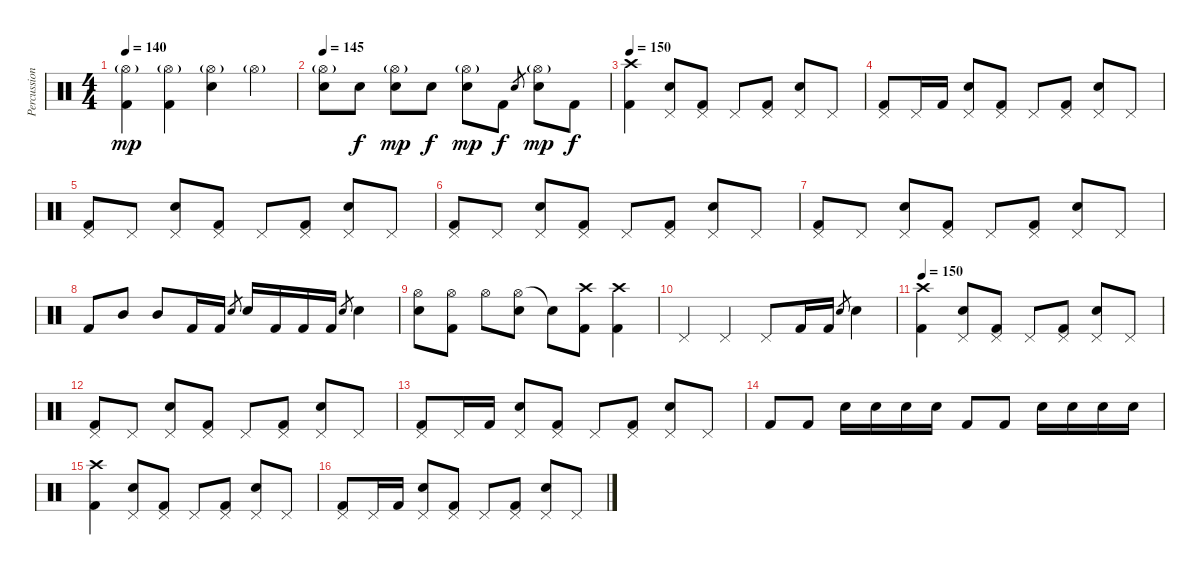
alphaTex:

\track ("Percussion" "Percussion") {instrument percussion}
\staff {score}
\articulation defaults
\ts (4 4)
\tempo 140
\clef neutral
\ks c
("Hi-Hat (open)"{g} "Kick (hit) 2").4{dy mp} ("Hi-Hat (open)"{g} "Kick (hit) 2").4 ("Hi-Hat (open)"{g} "Snare (hit) 2").4 "Hi-Hat (open)"{g}.4 |
\tempo 145
("Hi-Hat (open)"{g} "Snare (hit) 2").8 "Snare (hit) 2".8{dy f} ("Hi-Hat (open)"{g} "Snare (hit) 2").8{dy mp} "Snare (hit) 2".8{dy f} ("Hi-Hat (open)"{g} "Snare (hit) 2").8{dy mp} "Kick (hit) 2".8{dy f} "Snare (hit) 2".8{gr} ("Hi-Hat (open)"{g} "Snare (hit) 2").8{dy mp} "Kick (hit) 2".8{dy f} |
\tempo 150
("Crash high (hit)" "Kick (hit) 2").4 ("Pedal Hi-Hat (hit)" "Snare (hit) 2").8 ("Pedal Hi-Hat (hit)" "Kick (hit) 2").8 "Pedal Hi-Hat (hit)".8 ("Pedal Hi-Hat (hit)" "Kick (hit) 2").8 ("Pedal Hi-Hat (hit)" "Snare (hit) 2").8 "Pedal Hi-Hat (hit)".8 |
("Pedal Hi-Hat (hit)" "Kick (hit) 2").8 "Pedal Hi-Hat (hit)".16 "Kick (hit) 2".16 ("Pedal Hi-Hat (hit)" "Snare (hit) 2").8 ("Pedal Hi-Hat (hit)" "Kick (hit) 2").8 "Pedal Hi-Hat (hit)".8 ("Pedal Hi-Hat (hit)" "Kick (hit) 2").8 ("Pedal Hi-Hat (hit)" "Snare (hit) 2").8 "Pedal Hi-Hat (hit)".8 |
("Pedal Hi-Hat (hit)" "Kick (hit) 2").8 "Pedal Hi-Hat (hit)".8 ("Pedal Hi-Hat (hit)" "Snare (hit) 2").8 ("Pedal Hi-Hat (hit)" "Kick (hit) 2").8 "Pedal Hi-Hat (hit)".8 ("Pedal Hi-Hat (hit)" "Kick (hit) 2").8 ("Pedal Hi-Hat (hit)" "Snare (hit) 2").8 "Pedal Hi-Hat (hit)".8 |
("Pedal Hi-Hat (hit)" "Kick (hit) 2").8 "Pedal Hi-Hat (hit)".8 ("Pedal Hi-Hat (hit)" "Snare (hit) 2").8 ("Pedal Hi-Hat (hit)" "Kick (hit) 2").8 "Pedal Hi-Hat (hit)".8 ("Pedal Hi-Hat (hit)" "Kick (hit) 2").8 ("Pedal Hi-Hat (hit)" "Snare (hit) 2").8 "Pedal Hi-Hat (hit)".8 |
("Pedal Hi-Hat (hit)" "Kick (hit) 2").8 "Pedal Hi-Hat (hit)".8 ("Pedal Hi-Hat (hit)" "Snare (hit) 2").8 ("Pedal Hi-Hat (hit)" "Kick (hit) 2").8 "Pedal Hi-Hat (hit)".8 ("Pedal Hi-Hat (hit)" "Kick (hit) 2").8 ("Pedal Hi-Hat (hit)" "Snare (hit) 2").8 "Pedal Hi-Hat (hit)".8 |
"Kick (hit) 2".8 "Mid Tom (hit)".8 "Mid Tom (hit)".8 "Kick (hit) 2".16 "Kick (hit) 2".16 "Snare (hit) 2".8{gr} "Snare (hit) 2".16 "Kick (hit) 2".16 "Kick (hit) 2".16 "Kick (hit) 2".16 "Snare (hit) 2".8{gr} "Snare (hit) 2".4 |
("Hi-Hat (open)" "Snare (hit) 2").8 ("Hi-Hat (open)" "Kick (hit) 2").8 "Hi-Hat (open)".8 ("Hi-Hat (open)" "Snare (hit) 2").8 "Snare (hit)"{t}.8 ("Crash high (hit)" "Kick (hit) 2").8 ("Crash high (hit)" "Kick (hit) 2").4 |
"Pedal Hi-Hat (hit)".4 "Pedal Hi-Hat (hit)".4 "Pedal Hi-Hat (hit)".8 "Kick (hit) 2".16 "Kick (hit) 2".16 "Snare (hit) 2".8{gr} "Snare (hit) 2".4 |
\tempo 150
("Crash high (hit)" "Kick (hit) 2").4 ("Pedal Hi-Hat (hit)" "Snare (hit) 2").8 ("Pedal Hi-Hat (hit)" "Kick (hit) 2").8 "Pedal Hi-Hat (hit)".8 ("Pedal Hi-Hat (hit)" "Kick (hit) 2").8 ("Pedal Hi-Hat (hit)" "Snare (hit) 2").8 "Pedal Hi-Hat (hit)".8 |
("Pedal Hi-Hat (hit)" "Kick (hit) 2").8 "Pedal Hi-Hat (hit)".8 ("Pedal Hi-Hat (hit)" "Snare (hit) 2").8 ("Pedal Hi-Hat (hit)" "Kick (hit) 2").8 "Pedal Hi-Hat (hit)".8 ("Pedal Hi-Hat (hit)" "Kick (hit) 2").8 ("Pedal Hi-Hat (hit)" "Snare (hit) 2").8 "Pedal Hi-Hat (hit)".8 |
("Pedal Hi-Hat (hit)" "Kick (hit) 2").8 "Pedal Hi-Hat (hit)".16 "Kick (hit) 2".16 ("Pedal Hi-Hat (hit)" "Snare (hit) 2").8 ("Pedal Hi-Hat (hit)" "Kick (hit) 2").8 "Pedal Hi-Hat (hit)".8 ("Pedal Hi-Hat (hit)" "Kick (hit) 2").8 ("Pedal Hi-Hat (hit)" "Snare (hit) 2").8 "Pedal Hi-Hat (hit)".8 |
"Kick (hit) 2".8 "Kick (hit) 2".8 "Snare (hit) 2".16 "Snare (hit) 2".16 "Snare (hit) 2".16 "Snare (hit) 2".16 "Kick (hit) 2".8 "Kick (hit) 2".8 "Snare (hit) 2".16 "Snare (hit) 2".16 "Snare (hit) 2".16 "Snare (hit) 2".16 |
("Crash high (hit)" "Kick (hit) 2").4 ("Pedal Hi-Hat (hit)" "Snare (hit) 2").8 ("Pedal Hi-Hat (hit)" "Kick (hit) 2").8 "Pedal Hi-Hat (hit)".8 ("Pedal Hi-Hat (hit)" "Kick (hit) 2").8 ("Pedal Hi-Hat (hit)" "Snare (hit) 2").8 "Pedal Hi-Hat (hit)".8 |
("Pedal Hi-Hat (hit)" "Kick (hit) 2").8 "Pedal Hi-Hat (hit)".16 "Kick (hit) 2".16 ("Pedal Hi-Hat (hit)" "Snare (hit) 2").8 ("Pedal Hi-Hat (hit)" "Kick (hit) 2").8 "Pedal Hi-Hat (hit)".8 ("Pedal Hi-Hat (hit)" "Kick (hit) 2").8 ("Pedal Hi-Hat (hit)" "Snare (hit) 2").8 "Pedal Hi-Hat (hit)".8
